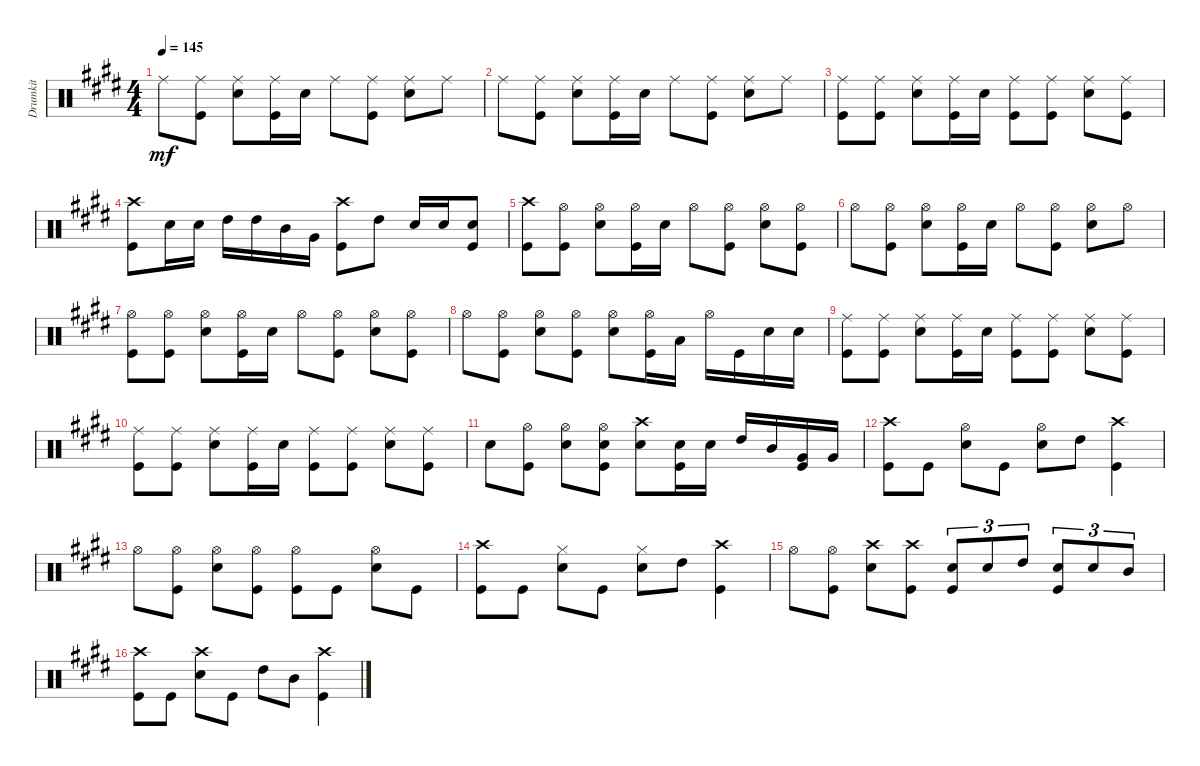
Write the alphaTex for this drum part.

\track ("Drumkit" "Drumkit") {instrument percussion}
\staff {score}
\articulation defaults
\ts (4 4)
\tempo 145
\clef neutral
\ks e "Ride (middle)".8{dy mf}
("Kick (hit)" "Ride (middle)").8 ("Snare (hit) 2" "Ride (middle)").8 ("Kick (hit)" "Ride (middle)").16 "Snare (hit) 2".16 "Ride (middle)".8 ("Kick (hit)" "Ride (middle)").8 ("Snare (hit) 2" "Ride (middle)").8 "Ride (middle)".8 |
"Ride (middle)".8 ("Kick (hit)" "Ride (middle)").8 ("Snare (hit) 2" "Ride (middle)").8 ("Kick (hit)" "Ride (middle)").16 "Snare (hit) 2".16 "Ride (middle)".8 ("Kick (hit)" "Ride (middle)").8 ("Snare (hit) 2" "Ride (middle)").8 "Ride (middle)".8 |
("Kick (hit)" "Ride (middle)").8 ("Kick (hit)" "Ride (middle)").8 ("Snare (hit) 2" "Ride (middle)").8 ("Kick (hit)" "Ride (middle)").16 "Snare (hit) 2".16 ("Kick (hit)" "Ride (middle)").8 ("Kick (hit)" "Ride (middle)").8 ("Snare (hit) 2" "Ride (middle)").8 ("Kick (hit)" "Ride (middle)").8 |
("Kick (hit)" "Crash high (hit)").8 "Snare (hit) 2".16 "Snare (hit) 2".16 "High Tom (hit)".16 "High Tom (hit)".16 "Mid Tom (hit)".16 "Very Low Tom (hit)".16 ("Kick (hit)" "Crash high (hit)").8 "High Tom (hit)".8 "Snare (hit) 2".16 "Snare (hit) 2".16 ("Snare (hit) 2" "Kick (hit)").8 |
("Kick (hit)" "Crash high (hit)").8 ("Kick (hit)" "Hi-Hat (open)").8 ("Snare (hit) 2" "Hi-Hat (open)").8 ("Kick (hit)" "Hi-Hat (open)").16 "Snare (hit) 2".16 "Hi-Hat (open)".8 ("Kick (hit)" "Hi-Hat (open)").8 ("Snare (hit) 2" "Hi-Hat (open)").8 ("Kick (hit)" "Hi-Hat (open)").8 |
"Hi-Hat (open)".8 ("Hi-Hat (open)" "Kick (hit)").8 ("Hi-Hat (open)" "Snare (hit) 2").8 ("Hi-Hat (open)" "Kick (hit)").16 "Snare (hit) 2".16 "Hi-Hat (open)".8 ("Hi-Hat (open)" "Kick (hit)").8 ("Hi-Hat (open)" "Snare (hit) 2").8 "Hi-Hat (open)".8 |
("Kick (hit)" "Hi-Hat (open)").8 ("Kick (hit)" "Hi-Hat (open)").8 ("Snare (hit) 2" "Hi-Hat (open)").8 ("Kick (hit)" "Hi-Hat (open)").16 "Snare (hit) 2".16 "Hi-Hat (open)".8 ("Kick (hit)" "Hi-Hat (open)").8 ("Snare (hit) 2" "Hi-Hat (open)").8 ("Kick (hit)" "Hi-Hat (open)").8 |
"Hi-Hat (open)".8 ("Hi-Hat (open)" "Kick (hit)").8 ("Hi-Hat (open)" "Snare (hit) 2").8 ("Hi-Hat (open)" "Kick (hit)").8 ("Hi-Hat (open)" "Snare (hit) 2").8 ("Hi-Hat (open)" "Kick (hit)").16 "Low Tom (hit)".16 "Hi-Hat (open)".16 "Kick (hit)".16 "Snare (hit) 2".16 "Snare (hit) 2".16 |
("Kick (hit)" "Ride (middle)").8 ("Kick (hit)" "Ride (middle)").8 ("Snare (hit) 2" "Ride (middle)").8 ("Kick (hit)" "Ride (middle)").16 "Snare (hit) 2".16 ("Kick (hit)" "Ride (middle)").8 ("Kick (hit)" "Ride (middle)").8 ("Snare (hit) 2" "Ride (middle)").8 ("Kick (hit)" "Ride (middle)").8 |
("Kick (hit)" "Ride (middle)").8 ("Kick (hit)" "Ride (middle)").8 ("Snare (hit) 2" "Ride (middle)").8 ("Kick (hit)" "Ride (middle)").16 "Snare (hit) 2".16 ("Kick (hit)" "Ride (middle)").8 ("Kick (hit)" "Ride (middle)").8 ("Snare (hit) 2" "Ride (middle)").8 ("Kick (hit)" "Ride (middle)").8 |
"Snare (hit) 2".8 ("Kick (hit)" "Hi-Hat (open)").8 ("Hi-Hat (open)" "Snare (hit) 2").8 ("Hi-Hat (open)" "Snare (hit) 2" "Kick (hit)").8 ("Snare (hit) 2" "Crash high (hit)").8 ("Snare (hit) 2" "Kick (hit)").16 "Snare (hit) 2".16 "High Tom (hit)".16 "Mid Tom (hit)".16 ("Very Low Tom (hit)" "Kick (hit)").16 "Very Low Tom (hit)".16 |
("Kick (hit)" "Crash high (hit)").8 "Kick (hit)".8 ("Snare (hit) 2" "Hi-Hat (open)").8 "Kick (hit)".8 ("Snare (hit) 2" "Hi-Hat (open)").8 "High Tom (hit)".8 ("Kick (hit)" "Crash high (hit)").4 |
"Hi-Hat (open)".8 ("Hi-Hat (open)" "Kick (hit)").8 ("Hi-Hat (open)" "Snare (hit) 2").8 ("Hi-Hat (open)" "Kick (hit)").8 ("Kick (hit)" "Hi-Hat (open)").8 "Kick (hit)".8 ("Snare (hit) 2" "Hi-Hat (open)").8 "Kick (hit)".8 |
("Kick (hit)" "Crash high (hit)").8 "Kick (hit)".8 ("Snare (hit) 2" "Hi-Hat (closed)").8 "Kick (hit)".8 ("Snare (hit) 2" "Hi-Hat (closed)").8 "High Tom (hit)".8 ("Kick (hit)" "Crash high (hit)").4 |
"Hi-Hat (open)".8 ("Hi-Hat (open)" "Kick (hit)").8 ("Snare (hit) 2" "Crash high (hit)").8 ("Kick (hit)" "Crash high (hit)").8 ("Snare (hit) 2" "Kick (hit)").8{tu (3 2)} "Snare (hit) 2".8{tu (3 2)} "High Tom (hit)".8{tu (3 2)} ("Snare (hit) 2" "Kick (hit)").8{tu (3 2)} "Snare (hit) 2".8{tu (3 2)} "Mid Tom (hit)".8{tu (3 2)} |
("Kick (hit)" "Crash high (hit)").8 "Kick (hit)".8 ("Snare (hit) 2" "Crash high (hit)").8 "Kick (hit)".8 "High Tom (hit)".8 "Mid Tom (hit)".8 ("Kick (hit)" "Crash high (hit)").4
